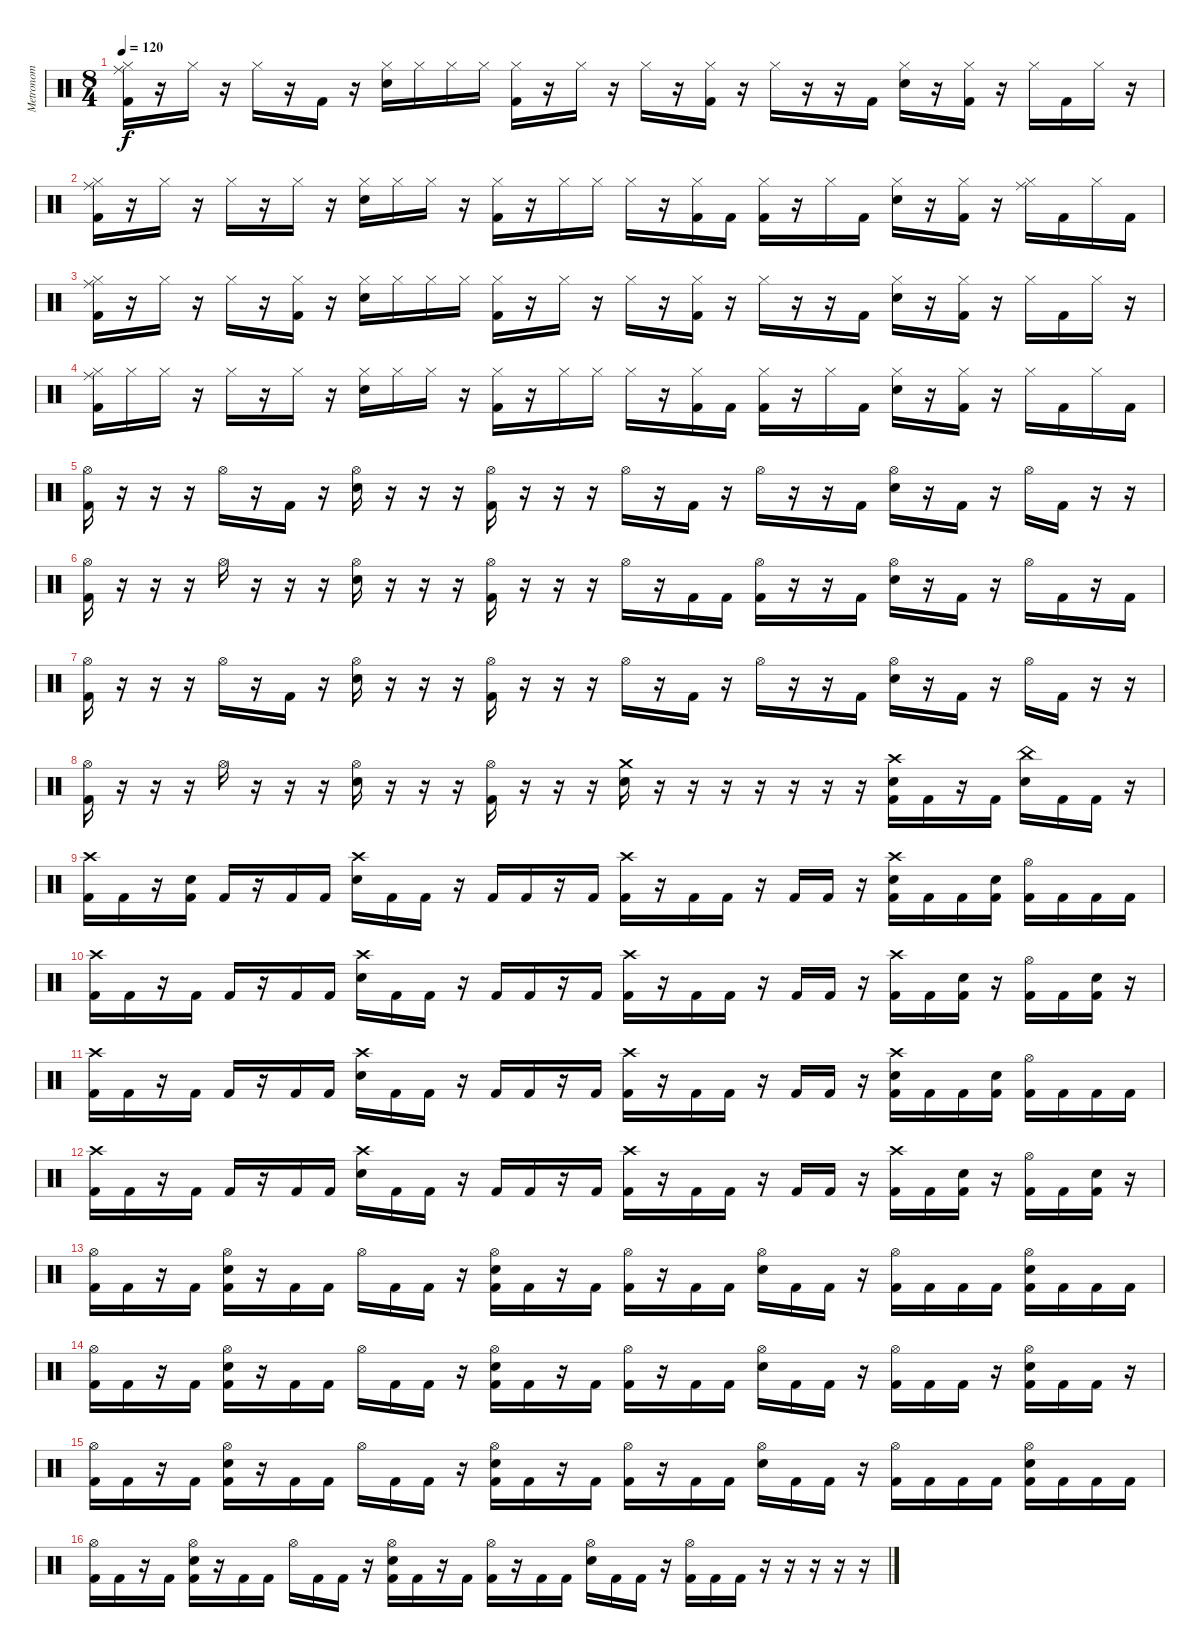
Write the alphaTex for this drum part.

\track ("Metronom" "Metronom") {instrument percussion}
\staff
\articulation defaults
\ts (8 4)
\tempo 120
\clef neutral
\ks c
("Hi-Hat (closed)" "Ride (middle)" "Kick (hit) 2").16{dy f} r.16 "Hi-Hat (closed)".16 r.16 "Hi-Hat (closed)".16 r.16 "Kick (hit) 2".16 r.16 ("Hi-Hat (closed)" "Electric Snare (hit)").16 "Hi-Hat (closed)".16 "Hi-Hat (closed)".16 "Hi-Hat (closed)".16 ("Hi-Hat (closed)" "Kick (hit) 2").16 r.16 "Hi-Hat (closed)".16 r.16 "Hi-Hat (closed)".16 r.16 ("Hi-Hat (closed)" "Kick (hit) 2").16 r.16 "Hi-Hat (closed)".16 r.16 r.16 "Kick (hit) 2".16 ("Hi-Hat (closed)" "Electric Snare (hit)").16 r.16 ("Hi-Hat (closed)" "Kick (hit) 2").16 r.16 "Hi-Hat (closed)".16 "Kick (hit) 2".16 "Hi-Hat (closed)".16 r.16 |
("Hi-Hat (closed)" "Ride (middle)" "Kick (hit) 2").16 r.16 "Hi-Hat (closed)".16 r.16 "Hi-Hat (closed)".16 r.16 "Hi-Hat (closed)".16 r.16 ("Hi-Hat (closed)" "Electric Snare (hit)").16 "Hi-Hat (closed)".16 "Hi-Hat (closed)".16 r.16 ("Hi-Hat (closed)" "Kick (hit) 2").16 r.16 "Hi-Hat (closed)".16 "Hi-Hat (closed)".16 "Hi-Hat (closed)".16 r.16 ("Hi-Hat (closed)" "Kick (hit) 2").16 "Kick (hit) 2".16 ("Hi-Hat (closed)" "Kick (hit) 2").16 r.16 "Hi-Hat (closed)".16 "Kick (hit) 2".16 ("Hi-Hat (closed)" "Electric Snare (hit)").16 r.16 ("Hi-Hat (closed)" "Kick (hit) 2").16 r.16 ("Hi-Hat (closed)" "Ride (middle)").16 "Kick (hit) 2".16 "Hi-Hat (closed)".16 "Kick (hit) 2".16 |
("Hi-Hat (closed)" "Ride (middle)" "Kick (hit) 2").16 r.16 "Hi-Hat (closed)".16 r.16 "Hi-Hat (closed)".16 r.16 ("Hi-Hat (closed)" "Kick (hit) 2").16 r.16 ("Hi-Hat (closed)" "Electric Snare (hit)").16 "Hi-Hat (closed)".16 "Hi-Hat (closed)".16 "Hi-Hat (closed)".16 ("Hi-Hat (closed)" "Kick (hit) 2").16 r.16 "Hi-Hat (closed)".16 r.16 "Hi-Hat (closed)".16 r.16 ("Hi-Hat (closed)" "Kick (hit) 2").16 r.16 "Hi-Hat (closed)".16 r.16 r.16 "Kick (hit) 2".16 ("Hi-Hat (closed)" "Electric Snare (hit)").16 r.16 ("Hi-Hat (closed)" "Kick (hit) 2").16 r.16 "Hi-Hat (closed)".16 "Kick (hit) 2".16 "Hi-Hat (closed)".16 r.16 |
("Hi-Hat (closed)" "Ride (middle)" "Kick (hit) 2").16 "Hi-Hat (closed)".16 "Hi-Hat (closed)".16 r.16 "Hi-Hat (closed)".16 r.16 "Hi-Hat (closed)".16 r.16 ("Hi-Hat (closed)" "Electric Snare (hit)").16 "Hi-Hat (closed)".16 "Hi-Hat (closed)".16 r.16 ("Hi-Hat (closed)" "Kick (hit) 2").16 r.16 "Hi-Hat (closed)".16 "Hi-Hat (closed)".16 "Hi-Hat (closed)".16 r.16 ("Hi-Hat (closed)" "Kick (hit) 2").16 "Kick (hit) 2".16 ("Hi-Hat (closed)" "Kick (hit) 2").16 r.16 "Hi-Hat (closed)".16 "Kick (hit) 2".16 ("Hi-Hat (closed)" "Electric Snare (hit)").16 r.16 ("Hi-Hat (closed)" "Kick (hit) 2").16 r.16 "Hi-Hat (closed)".16 "Kick (hit) 2".16 "Hi-Hat (closed)".16 "Kick (hit) 2".16 |
("Hi-Hat (open)" "Kick (hit) 2").16 r.16 r.16 r.16 "Hi-Hat (open)".16 r.16 "Kick (hit) 2".16 r.16 ("Hi-Hat (open)" "Electric Snare (hit)").16 r.16 r.16 r.16 ("Hi-Hat (open)" "Kick (hit) 2").16 r.16 r.16 r.16 "Hi-Hat (open)".16 r.16 "Kick (hit) 2".16 r.16 "Hi-Hat (open)".16 r.16 r.16 "Kick (hit) 2".16 ("Hi-Hat (open)" "Electric Snare (hit)").16 r.16 "Kick (hit) 2".16 r.16 "Hi-Hat (open)".16 "Kick (hit) 2".16 r.16 r.16 |
("Hi-Hat (open)" "Kick (hit) 2").16 r.16 r.16 r.16 "Hi-Hat (open)".16 r.16 r.16 r.16 ("Hi-Hat (open)" "Electric Snare (hit)").16 r.16 r.16 r.16 ("Hi-Hat (open)" "Kick (hit) 2").16 r.16 r.16 r.16 "Hi-Hat (open)".16 r.16 "Kick (hit) 2".16 "Kick (hit) 2".16 ("Hi-Hat (open)" "Kick (hit) 2").16 r.16 r.16 "Kick (hit) 2".16 ("Hi-Hat (open)" "Electric Snare (hit)").16 r.16 "Kick (hit) 2".16 r.16 "Hi-Hat (open)".16 "Kick (hit) 2".16 r.16 "Kick (hit) 2".16 |
("Hi-Hat (open)" "Kick (hit) 2").16 r.16 r.16 r.16 "Hi-Hat (open)".16 r.16 "Kick (hit) 2".16 r.16 ("Hi-Hat (open)" "Electric Snare (hit)").16 r.16 r.16 r.16 ("Hi-Hat (open)" "Kick (hit) 2").16 r.16 r.16 r.16 "Hi-Hat (open)".16 r.16 "Kick (hit) 2".16 r.16 "Hi-Hat (open)".16 r.16 r.16 "Kick (hit) 2".16 ("Hi-Hat (open)" "Electric Snare (hit)").16 r.16 "Kick (hit) 2".16 r.16 "Hi-Hat (open)".16 "Kick (hit) 2".16 r.16 r.16 |
("Hi-Hat (open)" "Kick (hit) 2").16 r.16 r.16 r.16 "Hi-Hat (open)".16 r.16 r.16 r.16 ("Hi-Hat (open)" "Electric Snare (hit)").16 r.16 r.16 r.16 ("Hi-Hat (open)" "Kick (hit) 2").16 r.16 r.16 r.16 ("Crash medium (hit)" "Electric Snare (hit)").16 r.16 r.16 r.16 r.16 r.16 r.16 r.16 ("Crash high (hit)" "Electric Snare (hit)" "Kick (hit) 2").16 "Kick (hit) 2".16 r.16 "Kick (hit) 2".16 ("China (hit)" "Electric Snare (hit)").16 "Kick (hit) 2".16 "Kick (hit) 2".16 r.16 |
("Crash high (hit)" "Kick (hit) 2").16 "Kick (hit) 2".16 r.16 ("Snare (hit)" "Kick (hit) 2").16 "Kick (hit) 2".16 r.16 "Kick (hit) 2".16 "Kick (hit) 2".16 ("Crash high (hit)" "Electric Snare (hit)").16 "Kick (hit) 2".16 "Kick (hit) 2".16 r.16 "Kick (hit) 2".16 "Kick (hit) 2".16 r.16 "Kick (hit) 2".16 ("Crash high (hit)" "Kick (hit) 2").16 r.16 "Kick (hit) 2".16 "Kick (hit) 2".16 r.16 "Kick (hit) 2".16 "Kick (hit) 2".16 r.16 ("Crash high (hit)" "Electric Snare (hit)" "Kick (hit) 2").16 "Kick (hit) 2".16 "Kick (hit) 2".16 ("Electric Snare (hit)" "Kick (hit) 2").16 ("Hi-Hat (open)" "Kick (hit) 2").16 "Kick (hit) 2".16 "Kick (hit) 2".16 "Kick (hit) 2".16 |
("Crash high (hit)" "Kick (hit) 2").16 "Kick (hit) 2".16 r.16 "Kick (hit) 2".16 "Kick (hit) 2".16 r.16 "Kick (hit) 2".16 "Kick (hit) 2".16 ("Crash high (hit)" "Electric Snare (hit)").16 "Kick (hit) 2".16 "Kick (hit) 2".16 r.16 "Kick (hit) 2".16 "Kick (hit) 2".16 r.16 "Kick (hit) 2".16 ("Crash high (hit)" "Kick (hit) 2").16 r.16 "Kick (hit) 2".16 "Kick (hit) 2".16 r.16 "Kick (hit) 2".16 "Kick (hit) 2".16 r.16 ("Crash high (hit)" "Kick (hit) 2").16 "Kick (hit) 2".16 ("Electric Snare (hit)" "Kick (hit) 2").16 r.16 ("Hi-Hat (open)" "Kick (hit) 2").16 "Kick (hit) 2".16 ("Electric Snare (hit)" "Kick (hit) 2").16 r.16 |
("Crash high (hit)" "Kick (hit) 2").16 "Kick (hit) 2".16 r.16 "Kick (hit) 2".16 "Kick (hit) 2".16 r.16 "Kick (hit) 2".16 "Kick (hit) 2".16 ("Crash high (hit)" "Electric Snare (hit)").16 "Kick (hit) 2".16 "Kick (hit) 2".16 r.16 "Kick (hit) 2".16 "Kick (hit) 2".16 r.16 "Kick (hit) 2".16 ("Crash high (hit)" "Kick (hit) 2").16 r.16 "Kick (hit) 2".16 "Kick (hit) 2".16 r.16 "Kick (hit) 2".16 "Kick (hit) 2".16 r.16 ("Crash high (hit)" "Electric Snare (hit)" "Kick (hit) 2").16 "Kick (hit) 2".16 "Kick (hit) 2".16 ("Electric Snare (hit)" "Kick (hit) 2").16 ("Hi-Hat (open)" "Kick (hit) 2").16 "Kick (hit) 2".16 "Kick (hit) 2".16 "Kick (hit) 2".16 |
("Crash high (hit)" "Kick (hit) 2").16 "Kick (hit) 2".16 r.16 "Kick (hit) 2".16 "Kick (hit) 2".16 r.16 "Kick (hit) 2".16 "Kick (hit) 2".16 ("Crash high (hit)" "Electric Snare (hit)").16 "Kick (hit) 2".16 "Kick (hit) 2".16 r.16 "Kick (hit) 2".16 "Kick (hit) 2".16 r.16 "Kick (hit) 2".16 ("Crash high (hit)" "Kick (hit) 2").16 r.16 "Kick (hit) 2".16 "Kick (hit) 2".16 r.16 "Kick (hit) 2".16 "Kick (hit) 2".16 r.16 ("Crash high (hit)" "Kick (hit) 2").16 "Kick (hit) 2".16 ("Electric Snare (hit)" "Kick (hit) 2").16 r.16 ("Hi-Hat (open)" "Kick (hit) 2").16 "Kick (hit) 2".16 ("Electric Snare (hit)" "Kick (hit) 2").16 r.16 |
("Hi-Hat (open)" "Kick (hit) 2").16 "Kick (hit) 2".16 r.16 "Kick (hit) 2".16 ("Hi-Hat (open)" "Electric Snare (hit)" "Kick (hit) 2").16 r.16 "Kick (hit) 2".16 "Kick (hit) 2".16 "Hi-Hat (open)".16 "Kick (hit) 2".16 "Kick (hit) 2".16 r.16 ("Hi-Hat (open)" "Electric Snare (hit)" "Kick (hit) 2").16 "Kick (hit) 2".16 r.16 "Kick (hit) 2".16 ("Hi-Hat (open)" "Kick (hit) 2").16 r.16 "Kick (hit) 2".16 "Kick (hit) 2".16 ("Hi-Hat (open)" "Electric Snare (hit)").16 "Kick (hit) 2".16 "Kick (hit) 2".16 r.16 ("Hi-Hat (open)" "Kick (hit) 2").16 "Kick (hit) 2".16 "Kick (hit) 2".16 "Kick (hit) 2".16 ("Hi-Hat (open)" "Electric Snare (hit)" "Kick (hit) 2").16 "Kick (hit) 2".16 "Kick (hit) 2".16 "Kick (hit) 2".16 |
("Hi-Hat (open)" "Kick (hit) 2").16 "Kick (hit) 2".16 r.16 "Kick (hit) 2".16 ("Hi-Hat (open)" "Electric Snare (hit)" "Kick (hit) 2").16 r.16 "Kick (hit) 2".16 "Kick (hit) 2".16 "Hi-Hat (open)".16 "Kick (hit) 2".16 "Kick (hit) 2".16 r.16 ("Hi-Hat (open)" "Electric Snare (hit)" "Kick (hit) 2").16 "Kick (hit) 2".16 r.16 "Kick (hit) 2".16 ("Hi-Hat (open)" "Kick (hit) 2").16 r.16 "Kick (hit) 2".16 "Kick (hit) 2".16 ("Hi-Hat (open)" "Electric Snare (hit)").16 "Kick (hit) 2".16 "Kick (hit) 2".16 r.16 ("Hi-Hat (open)" "Kick (hit) 2").16 "Kick (hit) 2".16 "Kick (hit) 2".16 r.16 ("Hi-Hat (open)" "Electric Snare (hit)" "Kick (hit) 2").16 "Kick (hit) 2".16 "Kick (hit) 2".16 r.16 |
("Hi-Hat (open)" "Kick (hit) 2").16 "Kick (hit) 2".16 r.16 "Kick (hit) 2".16 ("Hi-Hat (open)" "Electric Snare (hit)" "Kick (hit) 2").16 r.16 "Kick (hit) 2".16 "Kick (hit) 2".16 "Hi-Hat (open)".16 "Kick (hit) 2".16 "Kick (hit) 2".16 r.16 ("Hi-Hat (open)" "Electric Snare (hit)" "Kick (hit) 2").16 "Kick (hit) 2".16 r.16 "Kick (hit) 2".16 ("Hi-Hat (open)" "Kick (hit) 2").16 r.16 "Kick (hit) 2".16 "Kick (hit) 2".16 ("Hi-Hat (open)" "Electric Snare (hit)").16 "Kick (hit) 2".16 "Kick (hit) 2".16 r.16 ("Hi-Hat (open)" "Kick (hit) 2").16 "Kick (hit) 2".16 "Kick (hit) 2".16 "Kick (hit) 2".16 ("Hi-Hat (open)" "Electric Snare (hit)" "Kick (hit) 2").16 "Kick (hit) 2".16 "Kick (hit) 2".16 "Kick (hit) 2".16 |
("Hi-Hat (open)" "Kick (hit) 2").16 "Kick (hit) 2".16 r.16 "Kick (hit) 2".16 ("Hi-Hat (open)" "Electric Snare (hit)" "Kick (hit) 2").16 r.16 "Kick (hit) 2".16 "Kick (hit) 2".16 "Hi-Hat (open)".16 "Kick (hit) 2".16 "Kick (hit) 2".16 r.16 ("Hi-Hat (open)" "Electric Snare (hit)" "Kick (hit) 2").16 "Kick (hit) 2".16 r.16 "Kick (hit) 2".16 ("Hi-Hat (open)" "Kick (hit) 2").16 r.16 "Kick (hit) 2".16 "Kick (hit) 2".16 ("Hi-Hat (open)" "Electric Snare (hit)").16 "Kick (hit) 2".16 "Kick (hit) 2".16 r.16 ("Hi-Hat (open)" "Kick (hit) 2").16 "Kick (hit) 2".16 "Kick (hit) 2".16 r.16 r.16 r.16 r.16 r.16
